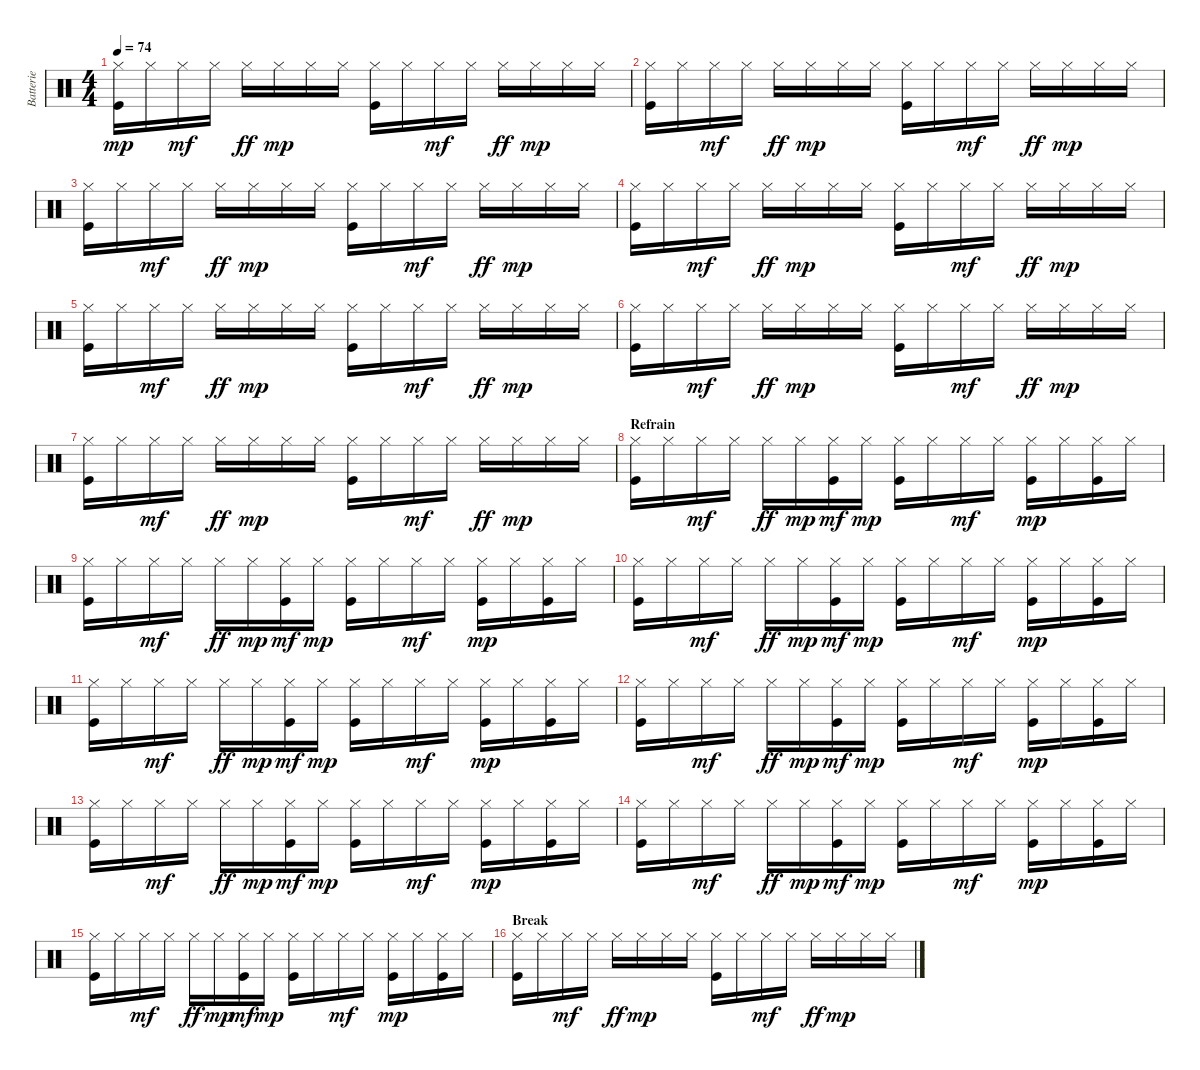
\track ("Batterie" "Batterie") {instrument percussion}
\staff {score}
\articulation defaults
\ts (4 4)
\tempo 74
\clef neutral
\ks c
("Hi-Hat (closed)" "Kick (hit)").16{dy mp} "Hi-Hat (closed)".16 "Hi-Hat (closed)".16{dy mf} "Hi-Hat (closed)".16 "Hi-Hat (closed)".16{dy ff} "Hi-Hat (closed)".16{dy mp} "Hi-Hat (closed)".16 "Hi-Hat (closed)".16 ("Hi-Hat (closed)" "Kick (hit)").16 "Hi-Hat (closed)".16 "Hi-Hat (closed)".16{dy mf} "Hi-Hat (closed)".16 "Hi-Hat (closed)".16{dy ff} "Hi-Hat (closed)".16{dy mp} "Hi-Hat (closed)".16 "Hi-Hat (closed)".16 |
("Hi-Hat (closed)" "Kick (hit)").16 "Hi-Hat (closed)".16 "Hi-Hat (closed)".16{dy mf} "Hi-Hat (closed)".16 "Hi-Hat (closed)".16{dy ff} "Hi-Hat (closed)".16{dy mp} "Hi-Hat (closed)".16 "Hi-Hat (closed)".16 ("Hi-Hat (closed)" "Kick (hit)").16 "Hi-Hat (closed)".16 "Hi-Hat (closed)".16{dy mf} "Hi-Hat (closed)".16 "Hi-Hat (closed)".16{dy ff} "Hi-Hat (closed)".16{dy mp} "Hi-Hat (closed)".16 "Hi-Hat (closed)".16 |
("Hi-Hat (closed)" "Kick (hit)").16 "Hi-Hat (closed)".16 "Hi-Hat (closed)".16{dy mf} "Hi-Hat (closed)".16 "Hi-Hat (closed)".16{dy ff} "Hi-Hat (closed)".16{dy mp} "Hi-Hat (closed)".16 "Hi-Hat (closed)".16 ("Hi-Hat (closed)" "Kick (hit)").16 "Hi-Hat (closed)".16 "Hi-Hat (closed)".16{dy mf} "Hi-Hat (closed)".16 "Hi-Hat (closed)".16{dy ff} "Hi-Hat (closed)".16{dy mp} "Hi-Hat (closed)".16 "Hi-Hat (closed)".16 |
("Hi-Hat (closed)" "Kick (hit)").16 "Hi-Hat (closed)".16 "Hi-Hat (closed)".16{dy mf} "Hi-Hat (closed)".16 "Hi-Hat (closed)".16{dy ff} "Hi-Hat (closed)".16{dy mp} "Hi-Hat (closed)".16 "Hi-Hat (closed)".16 ("Hi-Hat (closed)" "Kick (hit)").16 "Hi-Hat (closed)".16 "Hi-Hat (closed)".16{dy mf} "Hi-Hat (closed)".16 "Hi-Hat (closed)".16{dy ff} "Hi-Hat (closed)".16{dy mp} "Hi-Hat (closed)".16 "Hi-Hat (closed)".16 |
("Hi-Hat (closed)" "Kick (hit)").16 "Hi-Hat (closed)".16 "Hi-Hat (closed)".16{dy mf} "Hi-Hat (closed)".16 "Hi-Hat (closed)".16{dy ff} "Hi-Hat (closed)".16{dy mp} "Hi-Hat (closed)".16 "Hi-Hat (closed)".16 ("Hi-Hat (closed)" "Kick (hit)").16 "Hi-Hat (closed)".16 "Hi-Hat (closed)".16{dy mf} "Hi-Hat (closed)".16 "Hi-Hat (closed)".16{dy ff} "Hi-Hat (closed)".16{dy mp} "Hi-Hat (closed)".16 "Hi-Hat (closed)".16 |
("Hi-Hat (closed)" "Kick (hit)").16 "Hi-Hat (closed)".16 "Hi-Hat (closed)".16{dy mf} "Hi-Hat (closed)".16 "Hi-Hat (closed)".16{dy ff} "Hi-Hat (closed)".16{dy mp} "Hi-Hat (closed)".16 "Hi-Hat (closed)".16 ("Hi-Hat (closed)" "Kick (hit)").16 "Hi-Hat (closed)".16 "Hi-Hat (closed)".16{dy mf} "Hi-Hat (closed)".16 "Hi-Hat (closed)".16{dy ff} "Hi-Hat (closed)".16{dy mp} "Hi-Hat (closed)".16 "Hi-Hat (closed)".16 |
("Hi-Hat (closed)" "Kick (hit)").16 "Hi-Hat (closed)".16 "Hi-Hat (closed)".16{dy mf} "Hi-Hat (closed)".16 "Hi-Hat (closed)".16{dy ff} "Hi-Hat (closed)".16{dy mp} "Hi-Hat (closed)".16 "Hi-Hat (closed)".16 ("Hi-Hat (closed)" "Kick (hit)").16 "Hi-Hat (closed)".16 "Hi-Hat (closed)".16{dy mf} "Hi-Hat (closed)".16 "Hi-Hat (closed)".16{dy ff} "Hi-Hat (closed)".16{dy mp} "Hi-Hat (closed)".16 "Hi-Hat (closed)".16 |
\section ("" "Refrain")
("Hi-Hat (closed)" "Kick (hit)").16 "Hi-Hat (closed)".16 "Hi-Hat (closed)".16{dy mf} "Hi-Hat (closed)".16 "Hi-Hat (closed)".16{dy ff} "Hi-Hat (closed)".16{dy mp} ("Hi-Hat (closed)" "Kick (hit)").16{dy mf} "Hi-Hat (closed)".16{dy mp} ("Hi-Hat (closed)" "Kick (hit)").16 "Hi-Hat (closed)".16 "Hi-Hat (closed)".16{dy mf} "Hi-Hat (closed)".16 ("Hi-Hat (closed)" "Kick (hit)").16{dy mp} "Hi-Hat (closed)".16 ("Hi-Hat (closed)" "Kick (hit)").16 "Hi-Hat (closed)".16 |
("Hi-Hat (closed)" "Kick (hit)").16 "Hi-Hat (closed)".16 "Hi-Hat (closed)".16{dy mf} "Hi-Hat (closed)".16 "Hi-Hat (closed)".16{dy ff} "Hi-Hat (closed)".16{dy mp} ("Hi-Hat (closed)" "Kick (hit)").16{dy mf} "Hi-Hat (closed)".16{dy mp} ("Hi-Hat (closed)" "Kick (hit)").16 "Hi-Hat (closed)".16 "Hi-Hat (closed)".16{dy mf} "Hi-Hat (closed)".16 ("Hi-Hat (closed)" "Kick (hit)").16{dy mp} "Hi-Hat (closed)".16 ("Hi-Hat (closed)" "Kick (hit)").16 "Hi-Hat (closed)".16 |
("Hi-Hat (closed)" "Kick (hit)").16 "Hi-Hat (closed)".16 "Hi-Hat (closed)".16{dy mf} "Hi-Hat (closed)".16 "Hi-Hat (closed)".16{dy ff} "Hi-Hat (closed)".16{dy mp} ("Hi-Hat (closed)" "Kick (hit)").16{dy mf} "Hi-Hat (closed)".16{dy mp} ("Hi-Hat (closed)" "Kick (hit)").16 "Hi-Hat (closed)".16 "Hi-Hat (closed)".16{dy mf} "Hi-Hat (closed)".16 ("Hi-Hat (closed)" "Kick (hit)").16{dy mp} "Hi-Hat (closed)".16 ("Hi-Hat (closed)" "Kick (hit)").16 "Hi-Hat (closed)".16 |
("Hi-Hat (closed)" "Kick (hit)").16 "Hi-Hat (closed)".16 "Hi-Hat (closed)".16{dy mf} "Hi-Hat (closed)".16 "Hi-Hat (closed)".16{dy ff} "Hi-Hat (closed)".16{dy mp} ("Hi-Hat (closed)" "Kick (hit)").16{dy mf} "Hi-Hat (closed)".16{dy mp} ("Hi-Hat (closed)" "Kick (hit)").16 "Hi-Hat (closed)".16 "Hi-Hat (closed)".16{dy mf} "Hi-Hat (closed)".16 ("Hi-Hat (closed)" "Kick (hit)").16{dy mp} "Hi-Hat (closed)".16 ("Hi-Hat (closed)" "Kick (hit)").16 "Hi-Hat (closed)".16 |
("Hi-Hat (closed)" "Kick (hit)").16 "Hi-Hat (closed)".16 "Hi-Hat (closed)".16{dy mf} "Hi-Hat (closed)".16 "Hi-Hat (closed)".16{dy ff} "Hi-Hat (closed)".16{dy mp} ("Hi-Hat (closed)" "Kick (hit)").16{dy mf} "Hi-Hat (closed)".16{dy mp} ("Hi-Hat (closed)" "Kick (hit)").16 "Hi-Hat (closed)".16 "Hi-Hat (closed)".16{dy mf} "Hi-Hat (closed)".16 ("Hi-Hat (closed)" "Kick (hit)").16{dy mp} "Hi-Hat (closed)".16 ("Hi-Hat (closed)" "Kick (hit)").16 "Hi-Hat (closed)".16 |
("Hi-Hat (closed)" "Kick (hit)").16 "Hi-Hat (closed)".16 "Hi-Hat (closed)".16{dy mf} "Hi-Hat (closed)".16 "Hi-Hat (closed)".16{dy ff} "Hi-Hat (closed)".16{dy mp} ("Hi-Hat (closed)" "Kick (hit)").16{dy mf} "Hi-Hat (closed)".16{dy mp} ("Hi-Hat (closed)" "Kick (hit)").16 "Hi-Hat (closed)".16 "Hi-Hat (closed)".16{dy mf} "Hi-Hat (closed)".16 ("Hi-Hat (closed)" "Kick (hit)").16{dy mp} "Hi-Hat (closed)".16 ("Hi-Hat (closed)" "Kick (hit)").16 "Hi-Hat (closed)".16 |
("Hi-Hat (closed)" "Kick (hit)").16 "Hi-Hat (closed)".16 "Hi-Hat (closed)".16{dy mf} "Hi-Hat (closed)".16 "Hi-Hat (closed)".16{dy ff} "Hi-Hat (closed)".16{dy mp} ("Hi-Hat (closed)" "Kick (hit)").16{dy mf} "Hi-Hat (closed)".16{dy mp} ("Hi-Hat (closed)" "Kick (hit)").16 "Hi-Hat (closed)".16 "Hi-Hat (closed)".16{dy mf} "Hi-Hat (closed)".16 ("Hi-Hat (closed)" "Kick (hit)").16{dy mp} "Hi-Hat (closed)".16 ("Hi-Hat (closed)" "Kick (hit)").16 "Hi-Hat (closed)".16 |
("Hi-Hat (closed)" "Kick (hit)").16 "Hi-Hat (closed)".16 "Hi-Hat (closed)".16{dy mf} "Hi-Hat (closed)".16 "Hi-Hat (closed)".16{dy ff} "Hi-Hat (closed)".16{dy mp} ("Hi-Hat (closed)" "Kick (hit)").16{dy mf} "Hi-Hat (closed)".16{dy mp} ("Hi-Hat (closed)" "Kick (hit)").16 "Hi-Hat (closed)".16 "Hi-Hat (closed)".16{dy mf} "Hi-Hat (closed)".16 ("Hi-Hat (closed)" "Kick (hit)").16{dy mp} "Hi-Hat (closed)".16 ("Hi-Hat (closed)" "Kick (hit)").16 "Hi-Hat (closed)".16 |
\section ("" "Break")
("Hi-Hat (closed)" "Kick (hit)").16 "Hi-Hat (closed)".16 "Hi-Hat (closed)".16{dy mf} "Hi-Hat (closed)".16 "Hi-Hat (closed)".16{dy ff} "Hi-Hat (closed)".16{dy mp} "Hi-Hat (closed)".16 "Hi-Hat (closed)".16 ("Hi-Hat (closed)" "Kick (hit)").16 "Hi-Hat (closed)".16 "Hi-Hat (closed)".16{dy mf} "Hi-Hat (closed)".16 "Hi-Hat (closed)".16{dy ff} "Hi-Hat (closed)".16{dy mp} "Hi-Hat (closed)".16 "Hi-Hat (closed)".16
